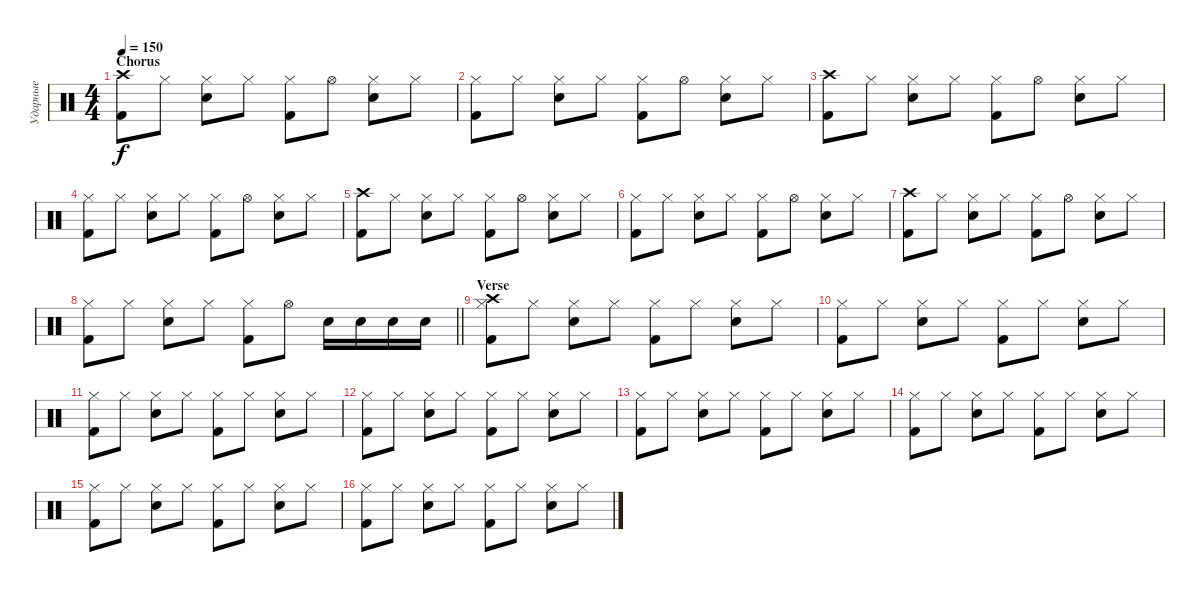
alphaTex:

\track ("Ударные" "Ударные") {instrument percussion}
\staff {score}
\articulation defaults
\ts (4 4)
\section ("" "Chorus")
\tempo 150
\clef neutral
\ks c
("Crash high (hit)" "Kick (hit) 2").8{dy f} "Hi-Hat (closed)".8 ("Hi-Hat (closed)" "Electric Snare (hit)").8 "Hi-Hat (closed)".8 ("Hi-Hat (closed)" "Kick (hit) 2").8 "Hi-Hat (open)".8 ("Hi-Hat (closed)" "Electric Snare (hit)").8 "Hi-Hat (closed)".8 |
("Hi-Hat (closed)" "Kick (hit) 2").8 "Hi-Hat (closed)".8 ("Hi-Hat (closed)" "Electric Snare (hit)").8 "Hi-Hat (closed)".8 ("Hi-Hat (closed)" "Kick (hit) 2").8 "Hi-Hat (open)".8 ("Hi-Hat (closed)" "Electric Snare (hit)").8 "Hi-Hat (closed)".8 |
("Crash high (hit)" "Kick (hit) 2").8 "Hi-Hat (closed)".8 ("Hi-Hat (closed)" "Electric Snare (hit)").8 "Hi-Hat (closed)".8 ("Hi-Hat (closed)" "Kick (hit) 2").8 "Hi-Hat (open)".8 ("Hi-Hat (closed)" "Electric Snare (hit)").8 "Hi-Hat (closed)".8 |
("Hi-Hat (closed)" "Kick (hit) 2").8 "Hi-Hat (closed)".8 ("Hi-Hat (closed)" "Electric Snare (hit)").8 "Hi-Hat (closed)".8 ("Hi-Hat (closed)" "Kick (hit) 2").8 "Hi-Hat (open)".8 ("Hi-Hat (closed)" "Electric Snare (hit)").8 "Hi-Hat (closed)".8 |
("Crash high (hit)" "Kick (hit) 2").8 "Hi-Hat (closed)".8 ("Hi-Hat (closed)" "Electric Snare (hit)").8 "Hi-Hat (closed)".8 ("Hi-Hat (closed)" "Kick (hit) 2").8 "Hi-Hat (open)".8 ("Hi-Hat (closed)" "Electric Snare (hit)").8 "Hi-Hat (closed)".8 |
("Hi-Hat (closed)" "Kick (hit) 2").8 "Hi-Hat (closed)".8 ("Hi-Hat (closed)" "Electric Snare (hit)").8 "Hi-Hat (closed)".8 ("Hi-Hat (closed)" "Kick (hit) 2").8 "Hi-Hat (open)".8 ("Hi-Hat (closed)" "Electric Snare (hit)").8 "Hi-Hat (closed)".8 |
("Crash high (hit)" "Kick (hit) 2").8 "Hi-Hat (closed)".8 ("Hi-Hat (closed)" "Electric Snare (hit)").8 "Hi-Hat (closed)".8 ("Hi-Hat (closed)" "Kick (hit) 2").8 "Hi-Hat (open)".8 ("Hi-Hat (closed)" "Electric Snare (hit)").8 "Hi-Hat (closed)".8 |
\barLineRight lightlight
("Hi-Hat (closed)" "Kick (hit) 2").8 "Hi-Hat (closed)".8 ("Hi-Hat (closed)" "Electric Snare (hit)").8 "Hi-Hat (closed)".8 ("Hi-Hat (closed)" "Kick (hit) 2").8 "Hi-Hat (open)".8 "Electric Snare (hit)".16 "Electric Snare (hit)".16 "Electric Snare (hit)".16 "Electric Snare (hit)".16 |
\section ("" "Verse")
("Crash high (hit)" "Hi-Hat (closed)" "Kick (hit) 2").8 "Hi-Hat (closed)".8 ("Hi-Hat (closed)" "Electric Snare (hit)").8 "Hi-Hat (closed)".8 ("Hi-Hat (closed)" "Kick (hit) 2").8 "Hi-Hat (closed)".8 ("Hi-Hat (closed)" "Electric Snare (hit)").8 "Hi-Hat (closed)".8 |
("Hi-Hat (closed)" "Kick (hit) 2").8 "Hi-Hat (closed)".8 ("Hi-Hat (closed)" "Electric Snare (hit)").8 "Hi-Hat (closed)".8 ("Hi-Hat (closed)" "Kick (hit) 2").8 "Hi-Hat (closed)".8 ("Hi-Hat (closed)" "Electric Snare (hit)").8 "Hi-Hat (closed)".8 |
("Hi-Hat (closed)" "Kick (hit) 2").8 "Hi-Hat (closed)".8 ("Hi-Hat (closed)" "Electric Snare (hit)").8 "Hi-Hat (closed)".8 ("Hi-Hat (closed)" "Kick (hit) 2").8 "Hi-Hat (closed)".8 ("Hi-Hat (closed)" "Electric Snare (hit)").8 "Hi-Hat (closed)".8 |
("Hi-Hat (closed)" "Kick (hit) 2").8 "Hi-Hat (closed)".8 ("Hi-Hat (closed)" "Electric Snare (hit)").8 "Hi-Hat (closed)".8 ("Hi-Hat (closed)" "Kick (hit) 2").8 "Hi-Hat (closed)".8 ("Hi-Hat (closed)" "Electric Snare (hit)").8 "Hi-Hat (closed)".8 |
("Hi-Hat (closed)" "Kick (hit) 2").8 "Hi-Hat (closed)".8 ("Hi-Hat (closed)" "Electric Snare (hit)").8 "Hi-Hat (closed)".8 ("Hi-Hat (closed)" "Kick (hit) 2").8 "Hi-Hat (closed)".8 ("Hi-Hat (closed)" "Electric Snare (hit)").8 "Hi-Hat (closed)".8 |
("Hi-Hat (closed)" "Kick (hit) 2").8 "Hi-Hat (closed)".8 ("Hi-Hat (closed)" "Electric Snare (hit)").8 "Hi-Hat (closed)".8 ("Hi-Hat (closed)" "Kick (hit) 2").8 "Hi-Hat (closed)".8 ("Hi-Hat (closed)" "Electric Snare (hit)").8 "Hi-Hat (closed)".8 |
("Hi-Hat (closed)" "Kick (hit) 2").8 "Hi-Hat (closed)".8 ("Hi-Hat (closed)" "Electric Snare (hit)").8 "Hi-Hat (closed)".8 ("Hi-Hat (closed)" "Kick (hit) 2").8 "Hi-Hat (closed)".8 ("Hi-Hat (closed)" "Electric Snare (hit)").8 "Hi-Hat (closed)".8 |
("Hi-Hat (closed)" "Kick (hit) 2").8 "Hi-Hat (closed)".8 ("Hi-Hat (closed)" "Electric Snare (hit)").8 "Hi-Hat (closed)".8 ("Hi-Hat (closed)" "Kick (hit) 2").8 "Hi-Hat (closed)".8 ("Hi-Hat (closed)" "Electric Snare (hit)").8 "Hi-Hat (closed)".8
